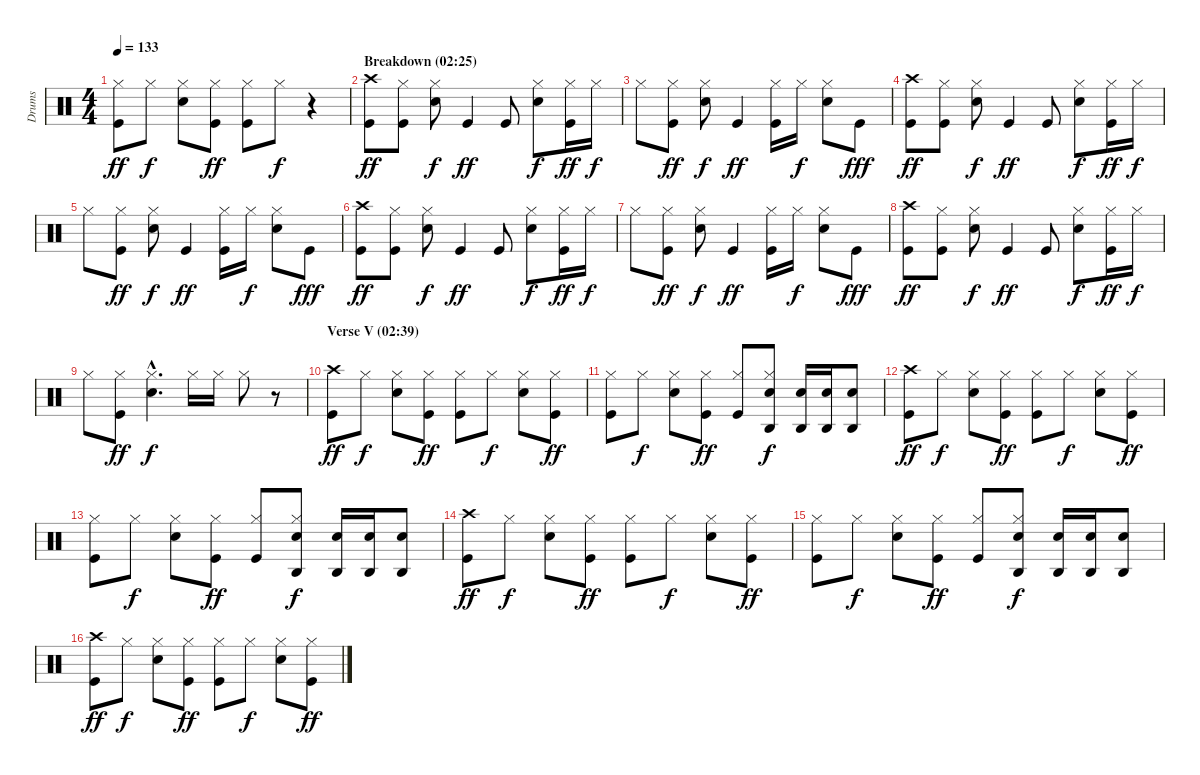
\track ("Drums" "Drums") {instrument percussion}
\staff {score}
\articulation defaults
\ts (4 4)
\tempo 133
\clef neutral
\ks c
("Hi-Hat (closed)" "Kick (hit)").8{dy ff} "Hi-Hat (closed)".8{dy f} ("Hi-Hat (closed)" "Electric Snare (hit)").8 ("Hi-Hat (closed)" "Kick (hit)").8{dy ff} ("Hi-Hat (closed)" "Kick (hit)").8 "Hi-Hat (closed)".8{dy f} r.4 |
\section ("" "Breakdown (02:25)")
("Crash high (hit)" "Kick (hit)").8{dy ff} ("Hi-Hat (closed)" "Kick (hit)").8 ("Hi-Hat (closed)" "Electric Snare (hit)").8{dy f} "Kick (hit)".4{dy ff} "Kick (hit)".8 ("Hi-Hat (closed)" "Electric Snare (hit)").8{dy f} ("Hi-Hat (closed)" "Kick (hit)").16{dy ff} "Hi-Hat (closed)".16{dy f} |
"Hi-Hat (closed)".8 ("Hi-Hat (closed)" "Kick (hit)").8{dy ff} ("Hi-Hat (closed)" "Electric Snare (hit)").8{dy f} "Kick (hit)".4{dy ff} ("Hi-Hat (closed)" "Kick (hit)").16 "Hi-Hat (closed)".16{dy f} ("Hi-Hat (closed)" "Electric Snare (hit)").8 "Kick (hit)".8{dy fff} |
("Crash high (hit)" "Kick (hit)").8{dy ff} ("Hi-Hat (closed)" "Kick (hit)").8 ("Hi-Hat (closed)" "Electric Snare (hit)").8{dy f} "Kick (hit)".4{dy ff} "Kick (hit)".8 ("Hi-Hat (closed)" "Electric Snare (hit)").8{dy f} ("Hi-Hat (closed)" "Kick (hit)").16{dy ff} "Hi-Hat (closed)".16{dy f} |
"Hi-Hat (closed)".8 ("Hi-Hat (closed)" "Kick (hit)").8{dy ff} ("Hi-Hat (closed)" "Electric Snare (hit)").8{dy f} "Kick (hit)".4{dy ff} ("Hi-Hat (closed)" "Kick (hit)").16 "Hi-Hat (closed)".16{dy f} ("Hi-Hat (closed)" "Electric Snare (hit)").8 "Kick (hit)".8{dy fff} |
("Crash high (hit)" "Kick (hit)").8{dy ff} ("Hi-Hat (closed)" "Kick (hit)").8 ("Hi-Hat (closed)" "Electric Snare (hit)").8{dy f} "Kick (hit)".4{dy ff} "Kick (hit)".8 ("Hi-Hat (closed)" "Electric Snare (hit)").8{dy f} ("Hi-Hat (closed)" "Kick (hit)").16{dy ff} "Hi-Hat (closed)".16{dy f} |
"Hi-Hat (closed)".8 ("Hi-Hat (closed)" "Kick (hit)").8{dy ff} ("Hi-Hat (closed)" "Electric Snare (hit)").8{dy f} "Kick (hit)".4{dy ff} ("Hi-Hat (closed)" "Kick (hit)").16 "Hi-Hat (closed)".16{dy f} ("Hi-Hat (closed)" "Electric Snare (hit)").8 "Kick (hit)".8{dy fff} |
("Crash high (hit)" "Kick (hit)").8{dy ff} ("Hi-Hat (closed)" "Kick (hit)").8 ("Hi-Hat (closed)" "Electric Snare (hit)").8{dy f} "Kick (hit)".4{dy ff} "Kick (hit)".8 ("Hi-Hat (closed)" "Electric Snare (hit)").8{dy f} ("Hi-Hat (closed)" "Kick (hit)").16{dy ff} "Hi-Hat (closed)".16{dy f} |
"Hi-Hat (closed)".8 ("Hi-Hat (closed)" "Kick (hit)").8{dy ff} ("Hi-Hat (closed)"{hac} "Electric Snare (hit)"{hac}).4{d dy f} "Hi-Hat (closed)".16 "Hi-Hat (closed)".16 "Hi-Hat (closed)".8 r.8 |
\section ("" "Verse V (02:39)")
("Crash high (hit)" "Kick (hit)").8{dy ff} "Hi-Hat (closed)".8{dy f} ("Hi-Hat (closed)" "Electric Snare (hit)").8 ("Hi-Hat (closed)" "Kick (hit)").8{dy ff} ("Hi-Hat (closed)" "Kick (hit)").8 "Hi-Hat (closed)".8{dy f} ("Hi-Hat (closed)" "Electric Snare (hit)").8 ("Hi-Hat (closed)" "Kick (hit)").8{dy ff} |
("Hi-Hat (closed)" "Kick (hit)").8 "Hi-Hat (closed)".8{dy f} ("Hi-Hat (closed)" "Electric Snare (hit)").8 ("Hi-Hat (closed)" "Kick (hit)").8{dy ff} ("Hi-Hat (closed)" "Kick (hit)").8 ("Agogo high (hit)" "Hi-Hat (closed)" "Electric Snare (hit)").8{dy f} ("Agogo high (hit)" "Electric Snare (hit)").16 ("Agogo high (hit)" "Electric Snare (hit)").16 ("Agogo high (hit)" "Electric Snare (hit)").8 |
("Crash high (hit)" "Kick (hit)").8{dy ff} "Hi-Hat (closed)".8{dy f} ("Hi-Hat (closed)" "Electric Snare (hit)").8 ("Hi-Hat (closed)" "Kick (hit)").8{dy ff} ("Hi-Hat (closed)" "Kick (hit)").8 "Hi-Hat (closed)".8{dy f} ("Hi-Hat (closed)" "Electric Snare (hit)").8 ("Hi-Hat (closed)" "Kick (hit)").8{dy ff} |
("Hi-Hat (closed)" "Kick (hit)").8 "Hi-Hat (closed)".8{dy f} ("Hi-Hat (closed)" "Electric Snare (hit)").8 ("Hi-Hat (closed)" "Kick (hit)").8{dy ff} ("Hi-Hat (closed)" "Kick (hit)").8 ("Agogo high (hit)" "Hi-Hat (closed)" "Electric Snare (hit)").8{dy f} ("Agogo high (hit)" "Electric Snare (hit)").16 ("Agogo high (hit)" "Electric Snare (hit)").16 ("Agogo high (hit)" "Electric Snare (hit)").8 |
("Crash high (hit)" "Kick (hit)").8{dy ff} "Hi-Hat (closed)".8{dy f} ("Hi-Hat (closed)" "Electric Snare (hit)").8 ("Hi-Hat (closed)" "Kick (hit)").8{dy ff} ("Hi-Hat (closed)" "Kick (hit)").8 "Hi-Hat (closed)".8{dy f} ("Hi-Hat (closed)" "Electric Snare (hit)").8 ("Hi-Hat (closed)" "Kick (hit)").8{dy ff} |
("Hi-Hat (closed)" "Kick (hit)").8 "Hi-Hat (closed)".8{dy f} ("Hi-Hat (closed)" "Electric Snare (hit)").8 ("Hi-Hat (closed)" "Kick (hit)").8{dy ff} ("Hi-Hat (closed)" "Kick (hit)").8 ("Agogo high (hit)" "Hi-Hat (closed)" "Electric Snare (hit)").8{dy f} ("Agogo high (hit)" "Electric Snare (hit)").16 ("Agogo high (hit)" "Electric Snare (hit)").16 ("Agogo high (hit)" "Electric Snare (hit)").8 |
("Crash high (hit)" "Kick (hit)").8{dy ff} "Hi-Hat (closed)".8{dy f} ("Hi-Hat (closed)" "Electric Snare (hit)").8 ("Hi-Hat (closed)" "Kick (hit)").8{dy ff} ("Hi-Hat (closed)" "Kick (hit)").8 "Hi-Hat (closed)".8{dy f} ("Hi-Hat (closed)" "Electric Snare (hit)").8 ("Hi-Hat (closed)" "Kick (hit)").8{dy ff}
